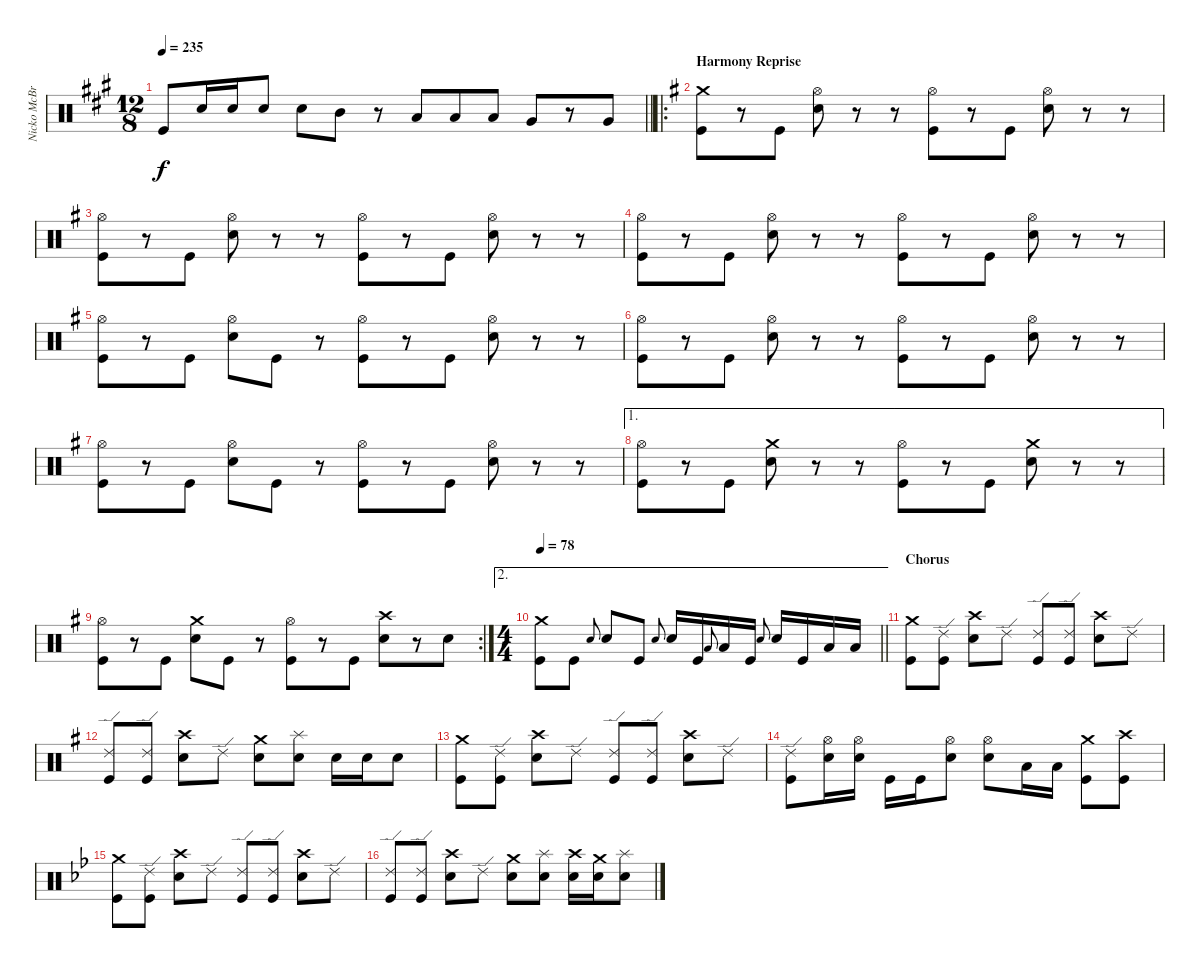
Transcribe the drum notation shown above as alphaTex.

\track ("Nicko McBrain (Drums)" "Nicko McBr") {instrument percussion}
\staff {score}
\articulation defaults
\ts (12 8)
\tempo 235
\clef neutral
\barLineRight lightlight
\ks f#minor "Kick (hit)".8{dy f} "Snare (hit) 2".16 "Snare (hit) 2".16 "Snare (hit) 2".8 "Snare (hit) 2".8 "Mid Tom (hit)".8
r.8 "Low Tom (hit)".8 "Low Tom (hit)".8 "Low Tom (hit)".8 "Very Low Tom (hit)".8 r.8 "Very Low Tom (hit)".8 |
\ro
\section ("" "Harmony Reprise")
\ks eminor
("Crash medium (hit)" "Kick (hit)").8 r.8 "Kick (hit)".8 ("Hi-Hat (open)" "Snare (hit) 2").8 r.8 r.8 ("Hi-Hat (open)" "Kick (hit)").8 r.8 "Kick (hit)".8 ("Hi-Hat (open)" "Snare (hit) 2").8 r.8 r.8 |
("Hi-Hat (open)" "Kick (hit)").8 r.8 "Kick (hit)".8 ("Hi-Hat (open)" "Snare (hit) 2").8 r.8 r.8 ("Hi-Hat (open)" "Kick (hit)").8 r.8 "Kick (hit)".8 ("Hi-Hat (open)" "Snare (hit) 2").8 r.8 r.8 |
("Hi-Hat (open)" "Kick (hit)").8 r.8 "Kick (hit)".8 ("Hi-Hat (open)" "Snare (hit) 2").8 r.8 r.8 ("Hi-Hat (open)" "Kick (hit)").8 r.8 "Kick (hit)".8 ("Hi-Hat (open)" "Snare (hit) 2").8 r.8 r.8 |
("Hi-Hat (open)" "Kick (hit)").8 r.8 "Kick (hit)".8 ("Hi-Hat (open)" "Snare (hit) 2").8 "Kick (hit)".8 r.8 ("Hi-Hat (open)" "Kick (hit)").8 r.8 "Kick (hit)".8 ("Hi-Hat (open)" "Snare (hit) 2").8 r.8 r.8 |
("Hi-Hat (open)" "Kick (hit)").8 r.8 "Kick (hit)".8 ("Hi-Hat (open)" "Snare (hit) 2").8 r.8 r.8 ("Hi-Hat (open)" "Kick (hit)").8 r.8 "Kick (hit)".8 ("Hi-Hat (open)" "Snare (hit) 2").8 r.8 r.8 |
("Hi-Hat (open)" "Kick (hit)").8 r.8 "Kick (hit)".8 ("Hi-Hat (open)" "Snare (hit) 2").8 "Kick (hit)".8 r.8 ("Hi-Hat (open)" "Kick (hit)").8 r.8 "Kick (hit)".8 ("Hi-Hat (open)" "Snare (hit) 2").8 r.8 r.8 |
\ae 1
("Hi-Hat (open)" "Kick (hit)").8 r.8 "Kick (hit)".8 ("Crash medium (hit)" "Snare (hit) 2").8 r.8 r.8 ("Hi-Hat (open)" "Kick (hit)").8 r.8 "Kick (hit)".8 ("Crash medium (hit)" "Snare (hit) 2").8 r.8 r.8 |
\rc 2
("Hi-Hat (open)" "Kick (hit)").8 r.8 "Kick (hit)".8 ("Crash medium (hit)" "Snare (hit) 2").8 "Kick (hit)".8 r.8 ("Hi-Hat (open)" "Kick (hit)").8 r.8 "Kick (hit)".8 ("Crash high (hit)" "Snare (hit) 2").8 r.8 "Snare (hit) 2".8 |
\ae 2
\ts (4 4)
\tempo 78
\barLineRight lightlight
("Crash medium (hit)" "Kick (hit)").8 "Kick (hit)".8 "Snare (hit) 2".8{gr onbeat} "Snare (hit) 2".8 "Kick (hit)".8 "Snare (hit) 2".8{gr onbeat} "Snare (hit) 2".16 "Kick (hit)".16 "Low Tom (hit)".8{gr onbeat} "Low Tom (hit)".16 "Kick (hit)".16 "Snare (hit) 2".8{gr onbeat} "Snare (hit) 2".16 "Kick (hit)".16 "Low Tom (hit)".16 "Low Tom (hit)".16 |
\section ("" "Chorus")
("Crash medium (hit)" "Kick (hit)").8 ("Ride (edge) 2" "Kick (hit)").8 ("Crash high (hit)" "Snare (hit) 2").8 "Ride (edge) 2".8 ("Ride (edge) 2" "Kick (hit)").8 ("Ride (edge) 2" "Kick (hit)").8 ("Crash high (hit)" "Snare (hit) 2").8 "Ride (edge) 2".8 |
("Ride (edge) 2" "Kick (hit)").8 ("Ride (edge) 2" "Kick (hit)").8 ("Crash high (hit)" "Snare (hit) 2").8 "Ride (edge) 2".8 ("Crash medium (hit)" "Snare (hit) 2").8 ("Splash (hit)" "Snare (hit) 2").8 "Snare (hit) 2".16 "Snare (hit) 2".16 "Snare (hit) 2".8 |
("Crash medium (hit)" "Kick (hit)").8 ("Ride (edge) 2" "Kick (hit)").8 ("Crash high (hit)" "Snare (hit) 2").8 "Ride (edge) 2".8 ("Ride (edge) 2" "Kick (hit)").8 ("Ride (edge) 2" "Kick (hit)").8 ("Crash high (hit)" "Snare (hit) 2").8 "Ride (edge) 2".8 |
("Ride (edge) 2" "Kick (hit)").8 ("Hi-Hat (open)" "Snare (hit) 2").16 ("Hi-Hat (open)" "Snare (hit) 2").16 "Kick (hit)".16 "Kick (hit)".16 ("Hi-Hat (open)" "Snare (hit) 2").8 ("Hi-Hat (open)" "Snare (hit) 2").8 "Low Tom (hit)".16 "Low Tom (hit)".16 ("Crash medium (hit)" "Kick (hit)").8 ("Crash high (hit)" "Kick (hit)").8 |
\ks gminor
("Crash medium (hit)" "Kick (hit)").8 ("Ride (edge) 2" "Kick (hit)").8 ("Crash high (hit)" "Snare (hit) 2").8 "Ride (edge) 2".8 ("Ride (edge) 2" "Kick (hit)").8 ("Ride (edge) 2" "Kick (hit)").8 ("Crash high (hit)" "Snare (hit) 2").8 "Ride (edge) 2".8 |
("Ride (edge) 2" "Kick (hit)").8 ("Ride (edge) 2" "Kick (hit)").8 ("Crash high (hit)" "Snare (hit) 2").8 "Ride (edge) 2".8 ("Crash medium (hit)" "Snare (hit) 2").8 ("Splash (hit)" "Snare (hit) 2").8 ("Crash high (hit)" "Snare (hit) 2").16 ("Crash medium (hit)" "Snare (hit) 2").16 ("Splash (hit)" "Snare (hit) 2").8
